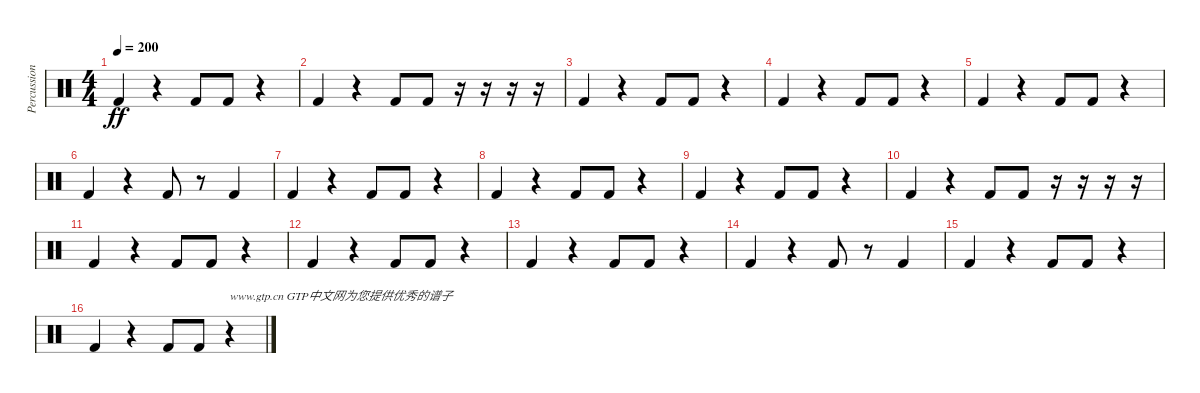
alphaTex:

\track ("Percussions 2" "Percussion") {instrument percussion}
\staff {score}
\articulation defaults
\ts (4 4)
\tempo 200
\clef neutral
\ks c "Kick (hit) 2".4{dy ff}
r.4 "Kick (hit) 2".8 "Kick (hit) 2".8 r.4 |
"Kick (hit) 2".4 r.4 "Kick (hit) 2".8 "Kick (hit) 2".8 r.16 r.16 r.16 r.16 |
"Kick (hit) 2".4 r.4 "Kick (hit) 2".8 "Kick (hit) 2".8 r.4 |
"Kick (hit) 2".4 r.4 "Kick (hit) 2".8 "Kick (hit) 2".8 r.4 |
"Kick (hit) 2".4 r.4 "Kick (hit) 2".8 "Kick (hit) 2".8 r.4 |
"Kick (hit) 2".4 r.4 "Kick (hit) 2".8 r.8 "Kick (hit) 2".4 |
"Kick (hit) 2".4 r.4 "Kick (hit) 2".8 "Kick (hit) 2".8 r.4 |
"Kick (hit) 2".4 r.4 "Kick (hit) 2".8 "Kick (hit) 2".8 r.4 |
"Kick (hit) 2".4 r.4 "Kick (hit) 2".8 "Kick (hit) 2".8 r.4 |
"Kick (hit) 2".4 r.4 "Kick (hit) 2".8 "Kick (hit) 2".8 r.16 r.16 r.16 r.16 |
"Kick (hit) 2".4 r.4 "Kick (hit) 2".8 "Kick (hit) 2".8 r.4 |
"Kick (hit) 2".4 r.4 "Kick (hit) 2".8 "Kick (hit) 2".8 r.4 |
"Kick (hit) 2".4 r.4 "Kick (hit) 2".8 "Kick (hit) 2".8 r.4 |
"Kick (hit) 2".4 r.4 "Kick (hit) 2".8 r.8 "Kick (hit) 2".4 |
"Kick (hit) 2".4 r.4 "Kick (hit) 2".8 "Kick (hit) 2".8 r.4 |
"Kick (hit) 2".4 r.4 "Kick (hit) 2".8 "Kick (hit) 2".8 r.4{txt "www.gtp.cn GTP中文网为您提供优秀的谱子"}
